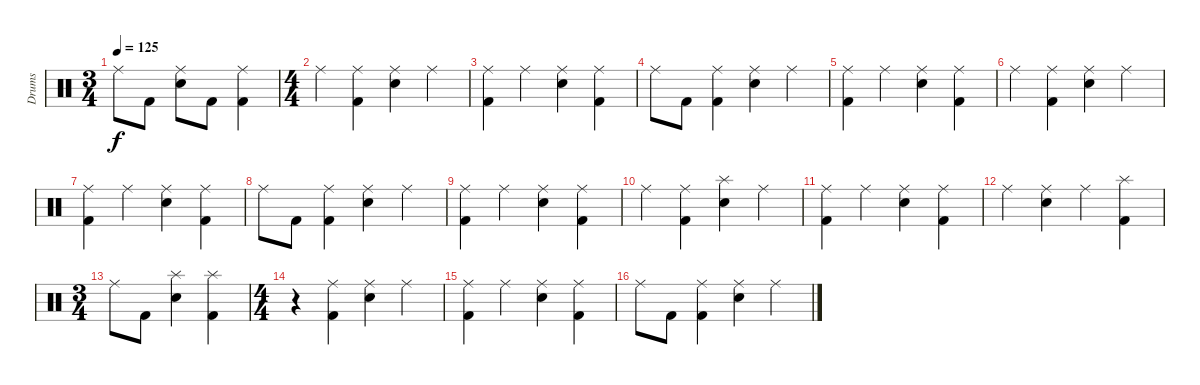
\track ("Drums" "Drums") {instrument percussion}
\staff {score}
\articulation defaults
\ts (3 4)
\tempo 125
\clef neutral
\ks c "Ride (middle)".8{dy f} "Kick (hit) 2".8
("Ride (middle)" "Electric Snare (hit)").8 "Kick (hit) 2".8 ("Ride (middle)" "Kick (hit) 2").4 |
\ts (4 4)
"Ride (middle)".4 ("Ride (middle)" "Kick (hit) 2").4 ("Ride (middle)" "Electric Snare (hit)").4 "Ride (middle)".4 |
("Ride (middle)" "Kick (hit) 2").4 "Ride (middle)".4 ("Ride (middle)" "Electric Snare (hit)").4 ("Ride (middle)" "Kick (hit) 2").4 |
"Ride (middle)".8 "Kick (hit) 2".8 ("Ride (middle)" "Kick (hit) 2").4 ("Ride (middle)" "Electric Snare (hit)").4 "Ride (middle)".4 |
("Ride (middle)" "Kick (hit) 2").4 "Ride (middle)".4 ("Ride (middle)" "Electric Snare (hit)").4 ("Ride (middle)" "Kick (hit) 2").4 |
"Ride (middle)".4 ("Ride (middle)" "Kick (hit) 2").4 ("Ride (middle)" "Electric Snare (hit)").4 "Ride (middle)".4 |
("Ride (middle)" "Kick (hit) 2").4 "Ride (middle)".4 ("Ride (middle)" "Electric Snare (hit)").4 ("Ride (middle)" "Kick (hit) 2").4 |
"Ride (middle)".8 "Kick (hit) 2".8 ("Ride (middle)" "Kick (hit) 2").4 ("Ride (middle)" "Electric Snare (hit)").4 "Ride (middle)".4 |
("Ride (middle)" "Kick (hit) 2").4 "Ride (middle)".4 ("Ride (middle)" "Electric Snare (hit)").4 ("Ride (middle)" "Kick (hit) 2").4 |
"Ride (middle)".4 ("Ride (middle)" "Kick (hit) 2").4 ("Splash (hit)" "Electric Snare (hit)").4 "Ride (middle)".4 |
("Ride (middle)" "Kick (hit) 2").4 "Ride (middle)".4 ("Ride (middle)" "Electric Snare (hit)").4 ("Ride (middle)" "Kick (hit) 2").4 |
"Ride (middle)".4 ("Ride (middle)" "Electric Snare (hit)").4 "Ride (middle)".4 ("Splash (hit)" "Kick (hit) 2").4 |
\ts (3 4)
"Ride (middle)".8 "Kick (hit) 2".8 ("Splash (hit)" "Electric Snare (hit)").4 ("Splash (hit)" "Kick (hit) 2").4 |
\ts (4 4)
r.4 ("Ride (middle)" "Kick (hit) 2").4 ("Ride (middle)" "Electric Snare (hit)").4 "Ride (middle)".4 |
("Ride (middle)" "Kick (hit) 2").4 "Ride (middle)".4 ("Ride (middle)" "Electric Snare (hit)").4 ("Ride (middle)" "Kick (hit) 2").4 |
"Ride (middle)".8 "Kick (hit) 2".8 ("Ride (middle)" "Kick (hit) 2").4 ("Ride (middle)" "Electric Snare (hit)").4 "Ride (middle)".4
